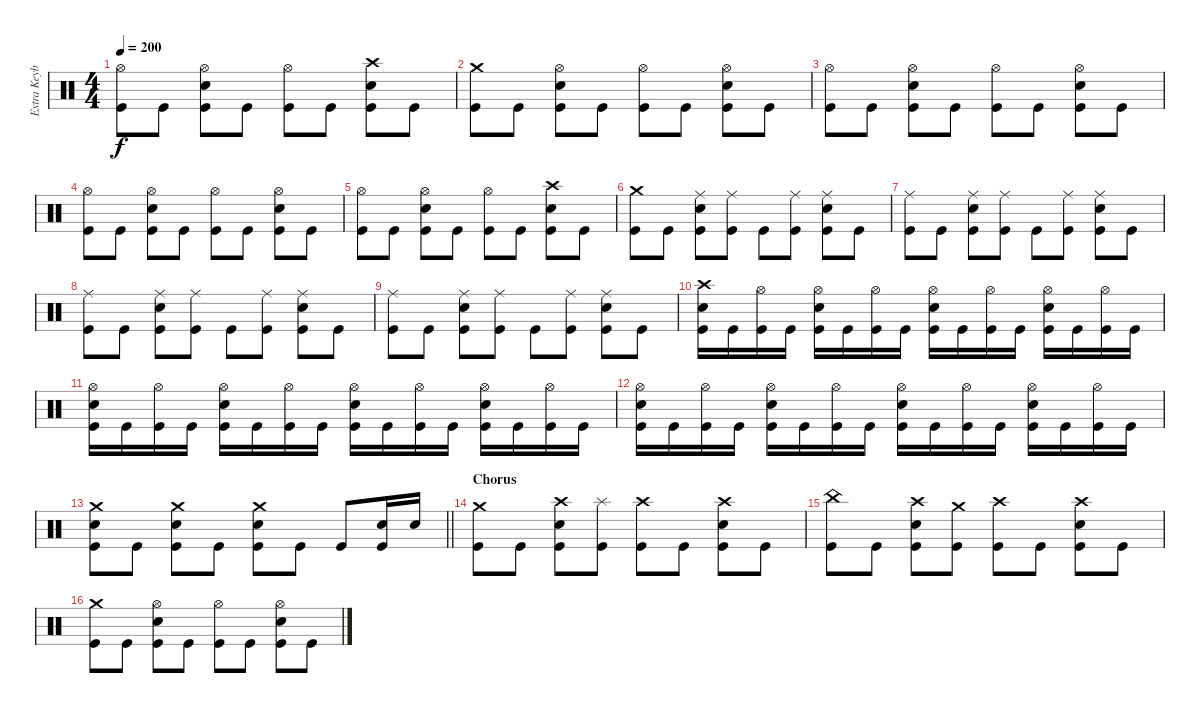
\track ("Extra Keyboard" "Extra Keyb") {instrument percussion}
\staff {score}
\articulation defaults
\ts (4 4)
\tempo 200
\clef neutral
\ks c
("Hi-Hat (open)" "Kick (hit)").8{dy f} "Kick (hit)".8 ("Hi-Hat (open)" "Electric Snare (hit)" "Kick (hit)").8 "Kick (hit)".8 ("Hi-Hat (open)" "Kick (hit)").8 "Kick (hit)".8 ("Crash high (hit)" "Electric Snare (hit)" "Kick (hit)").8 "Kick (hit)".8 |
("Crash medium (hit)" "Kick (hit)").8 "Kick (hit)".8 ("Hi-Hat (open)" "Electric Snare (hit)" "Kick (hit)").8 "Kick (hit)".8 ("Hi-Hat (open)" "Kick (hit)").8 "Kick (hit)".8 ("Hi-Hat (open)" "Electric Snare (hit)" "Kick (hit)").8 "Kick (hit)".8 |
("Hi-Hat (open)" "Kick (hit)").8 "Kick (hit)".8 ("Hi-Hat (open)" "Electric Snare (hit)" "Kick (hit)").8 "Kick (hit)".8 ("Hi-Hat (open)" "Kick (hit)").8 "Kick (hit)".8 ("Hi-Hat (open)" "Electric Snare (hit)" "Kick (hit)").8 "Kick (hit)".8 |
("Hi-Hat (open)" "Kick (hit)").8 "Kick (hit)".8 ("Hi-Hat (open)" "Electric Snare (hit)" "Kick (hit)").8 "Kick (hit)".8 ("Hi-Hat (open)" "Kick (hit)").8 "Kick (hit)".8 ("Hi-Hat (open)" "Electric Snare (hit)" "Kick (hit)").8 "Kick (hit)".8 |
("Hi-Hat (open)" "Kick (hit)").8 "Kick (hit)".8 ("Hi-Hat (open)" "Electric Snare (hit)" "Kick (hit)").8 "Kick (hit)".8 ("Hi-Hat (open)" "Kick (hit)").8 "Kick (hit)".8 ("Crash high (hit)" "Electric Snare (hit)" "Kick (hit)").8 "Kick (hit)".8 |
("Crash medium (hit)" "Kick (hit)").8 "Kick (hit)".8 ("Ride (middle)" "Electric Snare (hit)" "Kick (hit)").8 ("Ride (middle)" "Kick (hit)").8 "Kick (hit)".8 ("Ride (middle)" "Kick (hit)").8 ("Ride (middle)" "Electric Snare (hit)" "Kick (hit)").8 "Kick (hit)".8 |
("Ride (middle)" "Kick (hit)").8 "Kick (hit)".8 ("Ride (middle)" "Electric Snare (hit)" "Kick (hit)").8 ("Ride (middle)" "Kick (hit)").8 "Kick (hit)".8 ("Ride (middle)" "Kick (hit)").8 ("Ride (middle)" "Electric Snare (hit)" "Kick (hit)").8 "Kick (hit)".8 |
("Ride (middle)" "Kick (hit)").8 "Kick (hit)".8 ("Ride (middle)" "Electric Snare (hit)" "Kick (hit)").8 ("Ride (middle)" "Kick (hit)").8 "Kick (hit)".8 ("Ride (middle)" "Kick (hit)").8 ("Ride (middle)" "Electric Snare (hit)" "Kick (hit)").8 "Kick (hit)".8 |
("Ride (middle)" "Kick (hit)").8 "Kick (hit)".8 ("Ride (middle)" "Electric Snare (hit)" "Kick (hit)").8 ("Ride (middle)" "Kick (hit)").8 "Kick (hit)".8 ("Ride (middle)" "Kick (hit)").8 ("Ride (middle)" "Electric Snare (hit)" "Kick (hit)").8 "Kick (hit)".8 |
("Crash high (hit)" "Electric Snare (hit)" "Kick (hit)").16 "Kick (hit)".16 ("Hi-Hat (open)" "Kick (hit)").16 "Kick (hit)".16 ("Hi-Hat (open)" "Electric Snare (hit)" "Kick (hit)").16 "Kick (hit)".16 ("Hi-Hat (open)" "Kick (hit)").16 "Kick (hit)".16 ("Hi-Hat (open)" "Electric Snare (hit)" "Kick (hit)").16 "Kick (hit)".16 ("Hi-Hat (open)" "Kick (hit)").16 "Kick (hit)".16 ("Hi-Hat (open)" "Electric Snare (hit)" "Kick (hit)").16 "Kick (hit)".16 ("Hi-Hat (open)" "Kick (hit)").16 "Kick (hit)".16 |
("Hi-Hat (open)" "Electric Snare (hit)" "Kick (hit)").16 "Kick (hit)".16 ("Hi-Hat (open)" "Kick (hit)").16 "Kick (hit)".16 ("Hi-Hat (open)" "Electric Snare (hit)" "Kick (hit)").16 "Kick (hit)".16 ("Hi-Hat (open)" "Kick (hit)").16 "Kick (hit)".16 ("Hi-Hat (open)" "Electric Snare (hit)" "Kick (hit)").16 "Kick (hit)".16 ("Hi-Hat (open)" "Kick (hit)").16 "Kick (hit)".16 ("Hi-Hat (open)" "Electric Snare (hit)" "Kick (hit)").16 "Kick (hit)".16 ("Hi-Hat (open)" "Kick (hit)").16 "Kick (hit)".16 |
("Hi-Hat (open)" "Electric Snare (hit)" "Kick (hit)").16 "Kick (hit)".16 ("Hi-Hat (open)" "Kick (hit)").16 "Kick (hit)".16 ("Hi-Hat (open)" "Electric Snare (hit)" "Kick (hit)").16 "Kick (hit)".16 ("Hi-Hat (open)" "Kick (hit)").16 "Kick (hit)".16 ("Hi-Hat (open)" "Electric Snare (hit)" "Kick (hit)").16 "Kick (hit)".16 ("Hi-Hat (open)" "Kick (hit)").16 "Kick (hit)".16 ("Hi-Hat (open)" "Electric Snare (hit)" "Kick (hit)").16 "Kick (hit)".16 ("Hi-Hat (open)" "Kick (hit)").16 "Kick (hit)".16 |
\barLineRight lightlight
("Crash medium (hit)" "Electric Snare (hit)" "Kick (hit)").8 "Kick (hit)".8 ("Crash medium (hit)" "Electric Snare (hit)" "Kick (hit)").8 "Kick (hit)".8 ("Crash medium (hit)" "Electric Snare (hit)" "Kick (hit)").8 "Kick (hit)".8 "Kick (hit)".8 ("Electric Snare (hit)" "Kick (hit)").16 "Electric Snare (hit)".16 |
\section ("" "Chorus")
("Crash medium (hit)" "Kick (hit)").8 "Kick (hit)".8 ("Crash high (hit)" "Electric Snare (hit)" "Kick (hit)").8 ("Splash (hit)" "Kick (hit)").8 ("Crash high (hit)" "Kick (hit)").8 "Kick (hit)".8 ("Crash high (hit)" "Electric Snare (hit)" "Kick (hit)").8 "Kick (hit)".8 |
("China (hit)" "Kick (hit)").8 "Kick (hit)".8 ("Crash high (hit)" "Electric Snare (hit)" "Kick (hit)").8 ("Crash medium (hit)" "Kick (hit)").8 ("Crash high (hit)" "Kick (hit)").8 "Kick (hit)".8 ("Crash high (hit)" "Electric Snare (hit)" "Kick (hit)").8 "Kick (hit)".8 |
("Crash medium (hit)" "Kick (hit)").8 "Kick (hit)".8 ("Hi-Hat (open)" "Electric Snare (hit)" "Kick (hit)").8 "Kick (hit)".8 ("Hi-Hat (open)" "Kick (hit)").8 "Kick (hit)".8 ("Hi-Hat (open)" "Electric Snare (hit)" "Kick (hit)").8 "Kick (hit)".8
